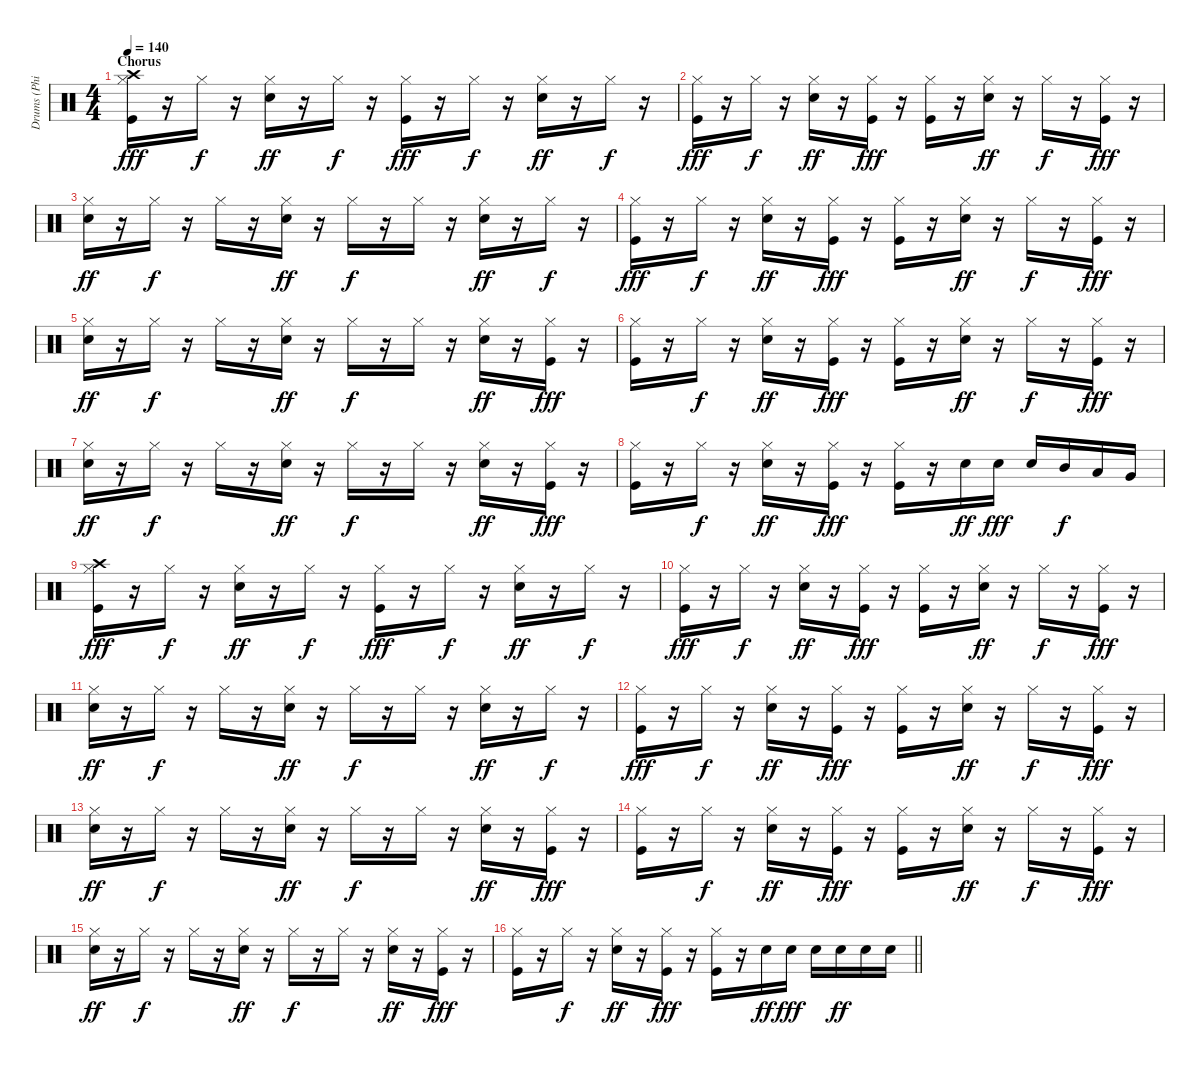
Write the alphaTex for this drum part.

\track ("Drums (Phillip Selway)" "Drums (Phi") {instrument percussion}
\staff {score}
\articulation defaults
\ts (4 4)
\section ("" "Chorus")
\tempo 140
\clef neutral
\ks c
("Crash high (hit)" "Hi-Hat (closed)" "Kick (hit)").16{dy fff} r.16 "Hi-Hat (closed)".16{dy f} r.16 ("Hi-Hat (closed)" "Electric Snare (hit)").16{dy ff} r.16 "Hi-Hat (closed)".16{dy f} r.16 ("Hi-Hat (closed)" "Kick (hit)").16{dy fff} r.16 "Hi-Hat (closed)".16{dy f} r.16 ("Hi-Hat (closed)" "Electric Snare (hit)").16{dy ff} r.16 "Hi-Hat (closed)".16{dy f} r.16 |
("Hi-Hat (closed)" "Kick (hit)").16{dy fff} r.16 "Hi-Hat (closed)".16{dy f} r.16 ("Hi-Hat (closed)" "Electric Snare (hit)").16{dy ff} r.16 ("Hi-Hat (closed)" "Kick (hit)").16{dy fff} r.16 ("Hi-Hat (closed)" "Kick (hit)").16 r.16 ("Hi-Hat (closed)" "Electric Snare (hit)").16{dy ff} r.16 "Hi-Hat (closed)".16{dy f} r.16 ("Hi-Hat (closed)" "Kick (hit)").16{dy fff} r.16 |
("Hi-Hat (closed)" "Electric Snare (hit)").16{dy ff} r.16 "Hi-Hat (closed)".16{dy f} r.16 "Hi-Hat (closed)".16 r.16 ("Hi-Hat (closed)" "Electric Snare (hit)").16{dy ff} r.16 "Hi-Hat (closed)".16{dy f} r.16 "Hi-Hat (closed)".16 r.16 ("Hi-Hat (closed)" "Electric Snare (hit)").16{dy ff} r.16 "Hi-Hat (closed)".16{dy f} r.16 |
("Hi-Hat (closed)" "Kick (hit)").16{dy fff} r.16 "Hi-Hat (closed)".16{dy f} r.16 ("Hi-Hat (closed)" "Electric Snare (hit)").16{dy ff} r.16 ("Hi-Hat (closed)" "Kick (hit)").16{dy fff} r.16 ("Hi-Hat (closed)" "Kick (hit)").16 r.16 ("Hi-Hat (closed)" "Electric Snare (hit)").16{dy ff} r.16 "Hi-Hat (closed)".16{dy f} r.16 ("Hi-Hat (closed)" "Kick (hit)").16{dy fff} r.16 |
("Hi-Hat (closed)" "Electric Snare (hit)").16{dy ff} r.16 "Hi-Hat (closed)".16{dy f} r.16 "Hi-Hat (closed)".16 r.16 ("Hi-Hat (closed)" "Electric Snare (hit)").16{dy ff} r.16 "Hi-Hat (closed)".16{dy f} r.16 "Hi-Hat (closed)".16 r.16 ("Hi-Hat (closed)" "Electric Snare (hit)").16{dy ff} r.16 ("Hi-Hat (closed)" "Kick (hit)").16{dy fff} r.16 |
("Hi-Hat (closed)" "Kick (hit)").16 r.16 "Hi-Hat (closed)".16{dy f} r.16 ("Hi-Hat (closed)" "Electric Snare (hit)").16{dy ff} r.16 ("Hi-Hat (closed)" "Kick (hit)").16{dy fff} r.16 ("Hi-Hat (closed)" "Kick (hit)").16 r.16 ("Hi-Hat (closed)" "Electric Snare (hit)").16{dy ff} r.16 "Hi-Hat (closed)".16{dy f} r.16 ("Hi-Hat (closed)" "Kick (hit)").16{dy fff} r.16 |
("Hi-Hat (closed)" "Electric Snare (hit)").16{dy ff} r.16 "Hi-Hat (closed)".16{dy f} r.16 "Hi-Hat (closed)".16 r.16 ("Hi-Hat (closed)" "Electric Snare (hit)").16{dy ff} r.16 "Hi-Hat (closed)".16{dy f} r.16 "Hi-Hat (closed)".16 r.16 ("Hi-Hat (closed)" "Electric Snare (hit)").16{dy ff} r.16 ("Hi-Hat (closed)" "Kick (hit)").16{dy fff} r.16 |
("Hi-Hat (closed)" "Kick (hit)").16 r.16 "Hi-Hat (closed)".16{dy f} r.16 ("Hi-Hat (closed)" "Electric Snare (hit)").16{dy ff} r.16 ("Hi-Hat (closed)" "Kick (hit)").16{dy fff} r.16 ("Hi-Hat (closed)" "Kick (hit)").16 r.16 "Electric Snare (hit)".16{dy ff} "Electric Snare (hit)".16{dy fff} "Electric Snare (hit)".16 "Mid Tom (hit)".16{dy f} "Low Tom (hit)".16 "Very Low Tom (hit)".16 |
("Crash high (hit)" "Hi-Hat (closed)" "Kick (hit)").16{dy fff} r.16 "Hi-Hat (closed)".16{dy f} r.16 ("Hi-Hat (closed)" "Electric Snare (hit)").16{dy ff} r.16 "Hi-Hat (closed)".16{dy f} r.16 ("Hi-Hat (closed)" "Kick (hit)").16{dy fff} r.16 "Hi-Hat (closed)".16{dy f} r.16 ("Hi-Hat (closed)" "Electric Snare (hit)").16{dy ff} r.16 "Hi-Hat (closed)".16{dy f} r.16 |
("Hi-Hat (closed)" "Kick (hit)").16{dy fff} r.16 "Hi-Hat (closed)".16{dy f} r.16 ("Hi-Hat (closed)" "Electric Snare (hit)").16{dy ff} r.16 ("Hi-Hat (closed)" "Kick (hit)").16{dy fff} r.16 ("Hi-Hat (closed)" "Kick (hit)").16 r.16 ("Hi-Hat (closed)" "Electric Snare (hit)").16{dy ff} r.16 "Hi-Hat (closed)".16{dy f} r.16 ("Hi-Hat (closed)" "Kick (hit)").16{dy fff} r.16 |
("Hi-Hat (closed)" "Electric Snare (hit)").16{dy ff} r.16 "Hi-Hat (closed)".16{dy f} r.16 "Hi-Hat (closed)".16 r.16 ("Hi-Hat (closed)" "Electric Snare (hit)").16{dy ff} r.16 "Hi-Hat (closed)".16{dy f} r.16 "Hi-Hat (closed)".16 r.16 ("Hi-Hat (closed)" "Electric Snare (hit)").16{dy ff} r.16 "Hi-Hat (closed)".16{dy f} r.16 |
("Hi-Hat (closed)" "Kick (hit)").16{dy fff} r.16 "Hi-Hat (closed)".16{dy f} r.16 ("Hi-Hat (closed)" "Electric Snare (hit)").16{dy ff} r.16 ("Hi-Hat (closed)" "Kick (hit)").16{dy fff} r.16 ("Hi-Hat (closed)" "Kick (hit)").16 r.16 ("Hi-Hat (closed)" "Electric Snare (hit)").16{dy ff} r.16 "Hi-Hat (closed)".16{dy f} r.16 ("Hi-Hat (closed)" "Kick (hit)").16{dy fff} r.16 |
("Hi-Hat (closed)" "Electric Snare (hit)").16{dy ff} r.16 "Hi-Hat (closed)".16{dy f} r.16 "Hi-Hat (closed)".16 r.16 ("Hi-Hat (closed)" "Electric Snare (hit)").16{dy ff} r.16 "Hi-Hat (closed)".16{dy f} r.16 "Hi-Hat (closed)".16 r.16 ("Hi-Hat (closed)" "Electric Snare (hit)").16{dy ff} r.16 ("Hi-Hat (closed)" "Kick (hit)").16{dy fff} r.16 |
("Hi-Hat (closed)" "Kick (hit)").16 r.16 "Hi-Hat (closed)".16{dy f} r.16 ("Hi-Hat (closed)" "Electric Snare (hit)").16{dy ff} r.16 ("Hi-Hat (closed)" "Kick (hit)").16{dy fff} r.16 ("Hi-Hat (closed)" "Kick (hit)").16 r.16 ("Hi-Hat (closed)" "Electric Snare (hit)").16{dy ff} r.16 "Hi-Hat (closed)".16{dy f} r.16 ("Hi-Hat (closed)" "Kick (hit)").16{dy fff} r.16 |
("Hi-Hat (closed)" "Electric Snare (hit)").16{dy ff} r.16 "Hi-Hat (closed)".16{dy f} r.16 "Hi-Hat (closed)".16 r.16 ("Hi-Hat (closed)" "Electric Snare (hit)").16{dy ff} r.16 "Hi-Hat (closed)".16{dy f} r.16 "Hi-Hat (closed)".16 r.16 ("Hi-Hat (closed)" "Electric Snare (hit)").16{dy ff} r.16 ("Hi-Hat (closed)" "Kick (hit)").16{dy fff} r.16 |
\barLineRight lightlight
("Hi-Hat (closed)" "Kick (hit)").16 r.16 "Hi-Hat (closed)".16{dy f} r.16 ("Hi-Hat (closed)" "Electric Snare (hit)").16{dy ff} r.16 ("Hi-Hat (closed)" "Kick (hit)").16{dy fff} r.16 ("Hi-Hat (closed)" "Kick (hit)").16 r.16 "Electric Snare (hit)".16{dy ff} "Electric Snare (hit)".16{dy fff} "Electric Snare (hit)".16 "Electric Snare (hit)".16{dy ff} "Electric Snare (hit)".16 "Electric Snare (hit)".16
